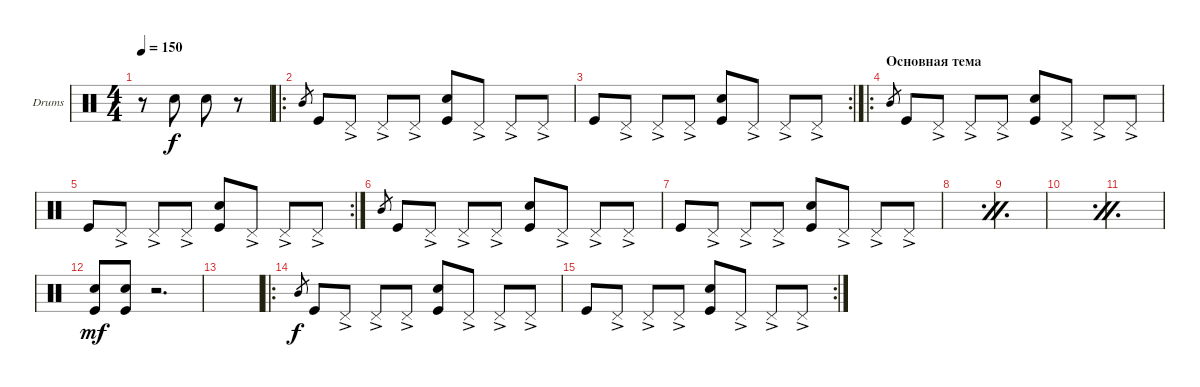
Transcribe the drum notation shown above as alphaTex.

\defaultSystemsLayout 4
\bracketExtendMode groupsimilarinstruments
\firstSystemTrackNameOrientation horizontal
\otherSystemsTrackNameOrientation horizontal
\track ("Drumkit" "Drums") {instrument percussion}
\staff {score}
\articulation defaults
\ts (4 4)
\ac
\tempo 150
\clef neutral
\ks c
r.8{dy f} "Snare (hit) 2".8 "Snare (hit) 2".8 r.8 |
\ro "Mid Tom (hit)".8{gr} "Kick (hit)".8 "Pedal Hi-Hat (hit)"{ac}.8 "Pedal Hi-Hat (hit)"{ac}.8 "Pedal Hi-Hat (hit)"{ac}.8
("Snare (hit) 2" "Kick (hit)").8 "Pedal Hi-Hat (hit)"{ac}.8 "Pedal Hi-Hat (hit)"{ac}.8 "Pedal Hi-Hat (hit)"{ac}.8 |
\rc 2 "Kick (hit)".8 "Pedal Hi-Hat (hit)"{ac}.8 "Pedal Hi-Hat (hit)"{ac}.8 "Pedal Hi-Hat (hit)"{ac}.8
("Snare (hit) 2" "Kick (hit)").8 "Pedal Hi-Hat (hit)"{ac}.8 "Pedal Hi-Hat (hit)"{ac}.8 "Pedal Hi-Hat (hit)"{ac}.8 |
\ro
\section ("" "Основная тема")
"Mid Tom (hit)".8{gr} "Kick (hit)".8 "Pedal Hi-Hat (hit)"{ac}.8 "Pedal Hi-Hat (hit)"{ac}.8 "Pedal Hi-Hat (hit)"{ac}.8 ("Snare (hit) 2" "Kick (hit)").8 "Pedal Hi-Hat (hit)"{ac}.8 "Pedal Hi-Hat (hit)"{ac}.8 "Pedal Hi-Hat (hit)"{ac}.8 |
\rc 2 "Kick (hit)".8 "Pedal Hi-Hat (hit)"{ac}.8 "Pedal Hi-Hat (hit)"{ac}.8 "Pedal Hi-Hat (hit)"{ac}.8
("Snare (hit) 2" "Kick (hit)").8 "Pedal Hi-Hat (hit)"{ac}.8 "Pedal Hi-Hat (hit)"{ac}.8 "Pedal Hi-Hat (hit)"{ac}.8 |
"Mid Tom (hit)".8{gr} "Kick (hit)".8 "Pedal Hi-Hat (hit)"{ac}.8 "Pedal Hi-Hat (hit)"{ac}.8 "Pedal Hi-Hat (hit)"{ac}.8 ("Snare (hit) 2" "Kick (hit)").8 "Pedal Hi-Hat (hit)"{ac}.8 "Pedal Hi-Hat (hit)"{ac}.8 "Pedal Hi-Hat (hit)"{ac}.8 |
"Kick (hit)".8 "Pedal Hi-Hat (hit)"{ac}.8 "Pedal Hi-Hat (hit)"{ac}.8 "Pedal Hi-Hat (hit)"{ac}.8 ("Snare (hit) 2" "Kick (hit)").8 "Pedal Hi-Hat (hit)"{ac}.8 "Pedal Hi-Hat (hit)"{ac}.8 "Pedal Hi-Hat (hit)"{ac}.8 |
\simile firstofdouble
|
\simile secondofdouble
|
\simile firstofdouble
|
\simile secondofdouble
|
\simile none
("Kick (hit)" "Snare (hit) 2").8{dy mf} ("Kick (hit)" "Snare (hit) 2").8 r.2{d} |
|
\ro "Mid Tom (hit)".8{gr dy f} "Kick (hit)".8 "Pedal Hi-Hat (hit)"{ac}.8 "Pedal Hi-Hat (hit)"{ac}.8 "Pedal Hi-Hat (hit)"{ac}.8
("Snare (hit) 2" "Kick (hit)").8 "Pedal Hi-Hat (hit)"{ac}.8 "Pedal Hi-Hat (hit)"{ac}.8 "Pedal Hi-Hat (hit)"{ac}.8 |
\rc 2 "Kick (hit)".8 "Pedal Hi-Hat (hit)"{ac}.8 "Pedal Hi-Hat (hit)"{ac}.8 "Pedal Hi-Hat (hit)"{ac}.8
("Snare (hit) 2" "Kick (hit)").8 "Pedal Hi-Hat (hit)"{ac}.8 "Pedal Hi-Hat (hit)"{ac}.8 "Pedal Hi-Hat (hit)"{ac}.8
